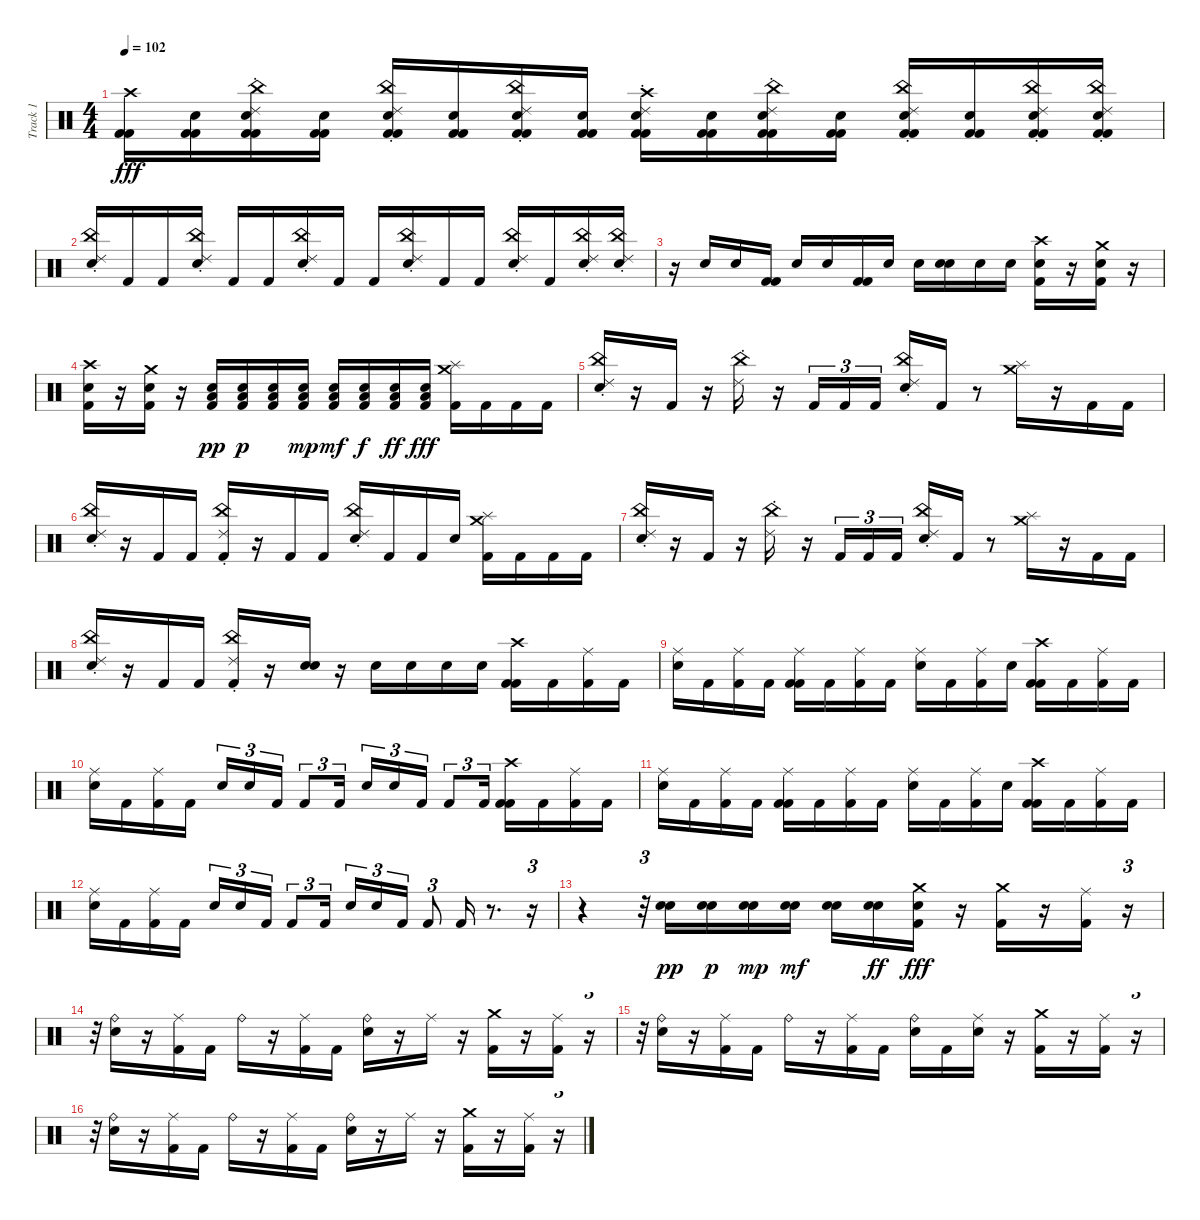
\track ("Track 1" "Track 1") {instrument percussion}
\staff {score}
\articulation defaults
\ts (4 4)
\tempo 102
\clef neutral
\ks c
("Crash high (hit)" "Kick (hit) 2" "Kick (hit) 2").16{dy fff} ("Kick (hit) 2" "Snare (hit) 2" "Kick (hit) 2").16 ("China (hit)" "Ride (choke) 2" "Kick (hit) 2" "Snare (hit) 2" "Kick (hit) 2").16 ("Snare (hit) 2" "Kick (hit) 2" "Kick (hit) 2").16 ("Snare (hit) 2" "China (hit)" "Ride (choke) 2" "Kick (hit) 2" "Kick (hit) 2").16 ("Kick (hit) 2" "Snare (hit) 2" "Kick (hit) 2").16 ("China (hit)" "Ride (choke) 2" "Snare (hit) 2" "Kick (hit) 2" "Kick (hit) 2").16 ("Snare (hit) 2" "Kick (hit) 2" "Kick (hit) 2").16 ("Snare (hit) 2" "Crash high (hit)" "Ride (choke) 2" "Kick (hit) 2" "Kick (hit) 2").16 ("Snare (hit) 2" "Kick (hit) 2" "Kick (hit) 2").16 ("Kick (hit) 2" "Snare (hit) 2" "China (hit)" "Ride (choke) 2" "Kick (hit) 2").16 ("Snare (hit) 2" "Kick (hit) 2" "Kick (hit) 2").16 ("Snare (hit) 2" "China (hit)" "Ride (choke) 2" "Kick (hit) 2" "Kick (hit) 2").16 ("Kick (hit) 2" "Snare (hit) 2" "Kick (hit) 2").16 ("Ride (choke) 2" "China (hit)" "Snare (hit) 2" "Kick (hit) 2" "Kick (hit) 2").16 ("Ride (choke) 2" "China (hit)" "Snare (hit) 2" "Kick (hit) 2" "Kick (hit) 2").16 |
("Snare (hit) 2" "China (hit)" "Ride (choke) 2").16 "Kick (hit) 2".16 "Kick (hit) 2".16 ("Snare (hit) 2" "China (hit)" "Ride (choke) 2").16 "Kick (hit) 2".16 "Kick (hit) 2".16 ("Snare (hit) 2" "China (hit)" "Ride (choke) 2").16 "Kick (hit) 2".16 "Kick (hit) 2".16 ("Snare (hit) 2" "China (hit)" "Ride (choke) 2").16 "Kick (hit) 2".16 "Kick (hit) 2".16 ("Snare (hit) 2" "China (hit)" "Ride (choke) 2").16 "Kick (hit) 2".16 ("Snare (hit) 2" "China (hit)" "Ride (choke) 2").16 ("Snare (hit) 2" "China (hit)" "Ride (choke) 2").16 |
r.16 "Snare (hit) 2".16 "Snare (hit) 2".16 ("Kick (hit) 2" "Kick (hit) 2").16 "Snare (hit) 2".16 "Snare (hit) 2".16 ("Kick (hit) 2" "Kick (hit) 2").16 "Snare (hit) 2".16 "Snare (hit) 2".16 ("Snare (hit) 2" "Snare (hit) 2").16 "Snare (hit) 2".16 "Snare (hit) 2".16 ("Kick (hit) 2" "Snare (hit) 2" "Crash high (hit)").16 r.16 ("Kick (hit) 2" "Snare (hit) 2" "Crash medium (hit)").16 r.16 |
("Kick (hit) 2" "Snare (hit) 2" "Crash high (hit)").16 r.16 ("Kick (hit) 2" "Snare (hit) 2" "Crash medium (hit)").16 r.16 ("Kick (hit) 2" "Snare (hit) 2" "Low Floor Tom (hit)").16{dy pp} ("Kick (hit) 2" "Snare (hit) 2" "Low Floor Tom (hit)").16{dy p} ("Kick (hit) 2" "Snare (hit) 2" "Low Floor Tom (hit)").16 ("Kick (hit) 2" "Snare (hit) 2" "Low Floor Tom (hit)").16{dy mp} ("Kick (hit) 2" "Snare (hit) 2" "Low Floor Tom (hit)").16{dy mf} ("Kick (hit) 2" "Snare (hit) 2" "Low Floor Tom (hit)").16{dy f} ("Kick (hit) 2" "Snare (hit) 2" "Low Floor Tom (hit)").16{dy ff} ("Kick (hit) 2" "Snare (hit) 2" "Low Floor Tom (hit)").16{dy fff} ("Kick (hit) 2" "Crash medium (hit)" "Splash (hit)").16 "Kick (hit) 2".16 "Kick (hit) 2".16 "Kick (hit) 2".16 |
("Snare (hit) 2" "China (hit)" "Ride (choke) 2").16 r.16 "Kick (hit) 2".16 r.16 ("China (hit)" "Ride (choke) 2").16 r.16 "Kick (hit) 2".16{tu (3 2)} "Kick (hit) 2".16{tu (3 2)} "Kick (hit) 2".16{tu (3 2)} ("China (hit)" "Ride (choke) 2" "Snare (hit) 2").16 "Kick (hit) 2".16 r.8 ("Splash (hit)" "Crash medium (hit)").16 r.16 "Kick (hit) 2".16 "Kick (hit) 2".16 |
("China (hit)" "Ride (choke) 2" "Snare (hit) 2").16 r.16 "Kick (hit) 2".16 "Kick (hit) 2".16 ("China (hit)" "Ride (choke) 2" "Kick (hit) 2").16 r.16 "Kick (hit) 2".16 "Kick (hit) 2".16 ("China (hit)" "Ride (choke) 2" "Snare (hit) 2").16 "Kick (hit) 2".16 "Kick (hit) 2".16 "Snare (hit) 2".16 ("Kick (hit) 2" "Crash medium (hit)" "Splash (hit)").16 "Kick (hit) 2".16 "Kick (hit) 2".16 "Kick (hit) 2".16 |
("Snare (hit) 2" "China (hit)" "Ride (choke) 2").16 r.16 "Kick (hit) 2".16 r.16 ("China (hit)" "Ride (choke) 2").16 r.16 "Kick (hit) 2".16{tu (3 2)} "Kick (hit) 2".16{tu (3 2)} "Kick (hit) 2".16{tu (3 2)} ("China (hit)" "Ride (choke) 2" "Snare (hit) 2").16 "Kick (hit) 2".16 r.8 ("Splash (hit)" "Crash medium (hit)").16 r.16 "Kick (hit) 2".16 "Kick (hit) 2".16 |
("China (hit)" "Ride (choke) 2" "Snare (hit) 2").16 r.16 "Kick (hit) 2".16 "Kick (hit) 2".16 ("China (hit)" "Ride (choke) 2" "Kick (hit) 2").16 r.16 ("Snare (hit) 2" "Snare (hit) 2").16 r.16 "Snare (hit) 2".16 "Snare (hit) 2".16 "Snare (hit) 2".16 "Snare (hit) 2".16 ("Kick (hit) 2" "Crash high (hit)" "Kick (hit) 2").16 "Kick (hit) 2".16 ("Kick (hit) 2" "Ride (middle)").16 "Kick (hit) 2".16 |
("Ride (middle)" "Snare (hit) 2").16 "Kick (hit) 2".16 ("Ride (middle)" "Kick (hit) 2").16 "Kick (hit) 2".16 ("Ride (middle)" "Kick (hit) 2" "Kick (hit) 2").16 "Kick (hit) 2".16 ("Ride (middle)" "Kick (hit) 2").16 "Kick (hit) 2".16 ("Ride (middle)" "Snare (hit) 2").16 "Kick (hit) 2".16 ("Ride (middle)" "Kick (hit) 2").16 "Snare (hit) 2".16 ("Kick (hit) 2" "Crash high (hit)" "Kick (hit) 2").16 "Kick (hit) 2".16 ("Kick (hit) 2" "Ride (middle)").16 "Kick (hit) 2".16 |
("Ride (middle)" "Snare (hit) 2").16 "Kick (hit) 2".16 ("Ride (middle)" "Kick (hit) 2").16 "Kick (hit) 2".16 "Snare (hit) 2".16{tu (3 2)} "Snare (hit) 2".16{tu (3 2)} "Kick (hit) 2".16{tu (3 2)} "Kick (hit) 2".8{tu (3 2)} "Kick (hit) 2".16{tu (3 2)} "Snare (hit) 2".16{tu (3 2)} "Snare (hit) 2".16{tu (3 2)} "Kick (hit) 2".16{tu (3 2)} "Kick (hit) 2".8{tu (3 2)} "Kick (hit) 2".16{tu (3 2)} ("Kick (hit) 2" "Crash high (hit)" "Kick (hit) 2").16 "Kick (hit) 2".16 ("Kick (hit) 2" "Ride (middle)").16 "Kick (hit) 2".16 |
("Ride (middle)" "Snare (hit) 2").16 "Kick (hit) 2".16 ("Ride (middle)" "Kick (hit) 2").16 "Kick (hit) 2".16 ("Ride (middle)" "Kick (hit) 2" "Kick (hit) 2").16 "Kick (hit) 2".16 ("Ride (middle)" "Kick (hit) 2").16 "Kick (hit) 2".16 ("Ride (middle)" "Snare (hit) 2").16 "Kick (hit) 2".16 ("Ride (middle)" "Kick (hit) 2").16 "Snare (hit) 2".16 ("Kick (hit) 2" "Crash high (hit)" "Kick (hit) 2").16 "Kick (hit) 2".16 ("Kick (hit) 2" "Ride (middle)").16 "Kick (hit) 2".16 |
("Ride (middle)" "Snare (hit) 2").16 "Kick (hit) 2".16 ("Ride (middle)" "Kick (hit) 2").16 "Kick (hit) 2".16 "Snare (hit) 2".16{tu (3 2)} "Snare (hit) 2".16{tu (3 2)} "Kick (hit) 2".16{tu (3 2)} "Kick (hit) 2".8{tu (3 2)} "Kick (hit) 2".16{tu (3 2)} "Snare (hit) 2".16{tu (3 2)} "Snare (hit) 2".16{tu (3 2)} "Kick (hit) 2".16{tu (3 2)} "Kick (hit) 2".8{tu (3 2)} "Kick (hit) 2".16 r.8{d} r.16{tu (3 2)} |
r.4 r.32{tu (3 2)} ("Snare (hit) 2" "Snare (hit) 2").16{dy pp} ("Snare (hit) 2" "Snare (hit) 2").16{dy p} ("Snare (hit) 2" "Snare (hit) 2").16{dy mp} ("Snare (hit) 2" "Snare (hit) 2").16{dy mf} ("Snare (hit) 2" "Snare (hit) 2").16 ("Snare (hit) 2" "Snare (hit) 2").16{dy ff} ("Kick (hit) 2" "Snare (hit) 2" "Crash medium (hit)").16{dy fff} r.16 ("Kick (hit) 2" "Crash medium (hit)").16 r.16 ("Kick (hit) 2" "Ride (middle)").16 r.16{tu (3 2)} |
r.32{tu (3 2)} ("Ride (bell)" "Snare (hit) 2").16 r.16 ("Ride (middle)" "Kick (hit) 2").16 "Kick (hit) 2".16 "Ride (bell)".16 r.16 ("Ride (middle)" "Kick (hit) 2").16 "Kick (hit) 2".16 ("Ride (bell)" "Snare (hit) 2").16 r.16 "Ride (middle)".16 r.16 ("Kick (hit) 2" "Crash medium (hit)").16 r.16 ("Ride (middle)" "Kick (hit) 2").16 r.16{tu (3 2)} |
r.32{tu (3 2)} ("Ride (bell)" "Snare (hit) 2").16 r.16 ("Ride (middle)" "Kick (hit) 2").16 "Kick (hit) 2".16 "Ride (bell)".16 r.16 ("Ride (middle)" "Kick (hit) 2").16 "Kick (hit) 2".16 ("Ride (bell)" "Snare (hit) 2").16 "Kick (hit) 2".16 ("Ride (middle)" "Snare (hit) 2").16 r.16 ("Kick (hit) 2" "Crash medium (hit)").16 r.16 ("Ride (middle)" "Kick (hit) 2").16 r.16{tu (3 2)} |
r.32{tu (3 2)} ("Ride (bell)" "Snare (hit) 2").16 r.16 ("Ride (middle)" "Kick (hit) 2").16 "Kick (hit) 2".16 "Ride (bell)".16 r.16 ("Ride (middle)" "Kick (hit) 2").16 "Kick (hit) 2".16 ("Ride (bell)" "Snare (hit) 2").16 r.16 "Ride (middle)".16 r.16 ("Kick (hit) 2" "Crash medium (hit)").16 r.16 ("Ride (middle)" "Kick (hit) 2").16 r.16{tu (3 2)}
